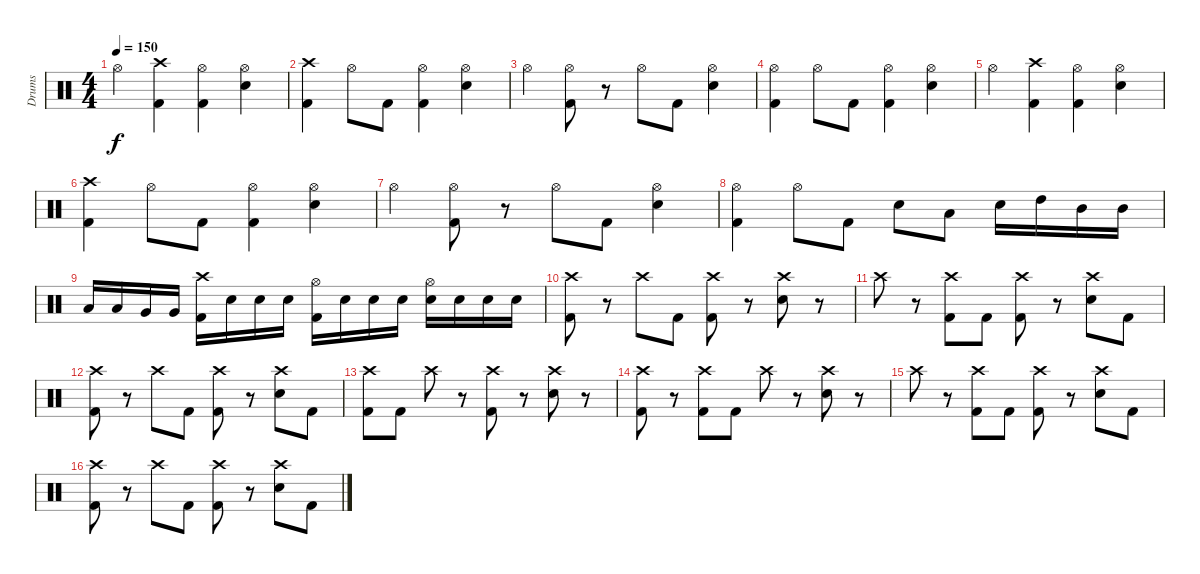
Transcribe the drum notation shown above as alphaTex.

\track ("Drums" "Drums") {instrument percussion}
\staff {score}
\articulation defaults
\ts (4 4)
\tempo 150
\clef neutral
\ks c "Hi-Hat (open)".4{dy f}
("Kick (hit) 2" "Crash high (hit)").4 ("Kick (hit) 2" "Hi-Hat (open)").4 ("Hi-Hat (open)" "Snare (hit) 2").4 |
("Kick (hit) 2" "Crash high (hit)").4 "Hi-Hat (open)".8 "Kick (hit) 2".8 ("Kick (hit) 2" "Hi-Hat (open)").4 ("Hi-Hat (open)" "Snare (hit) 2").4 |
"Hi-Hat (open)".4 ("Kick (hit) 2" "Hi-Hat (open)").8 r.8 "Hi-Hat (open)".8 "Kick (hit) 2".8 ("Hi-Hat (open)" "Snare (hit) 2").4 |
("Kick (hit) 2" "Hi-Hat (open)").4 "Hi-Hat (open)".8 "Kick (hit) 2".8 ("Kick (hit) 2" "Hi-Hat (open)").4 ("Hi-Hat (open)" "Snare (hit) 2").4 |
"Hi-Hat (open)".4 ("Kick (hit) 2" "Crash high (hit)").4 ("Kick (hit) 2" "Hi-Hat (open)").4 ("Hi-Hat (open)" "Snare (hit) 2").4 |
("Kick (hit) 2" "Crash high (hit)").4 "Hi-Hat (open)".8 "Kick (hit) 2".8 ("Kick (hit) 2" "Hi-Hat (open)").4 ("Hi-Hat (open)" "Snare (hit) 2").4 |
"Hi-Hat (open)".4 ("Kick (hit) 2" "Hi-Hat (open)").8 r.8 "Hi-Hat (open)".8 "Kick (hit) 2".8 ("Hi-Hat (open)" "Snare (hit) 2").4 |
("Kick (hit) 2" "Hi-Hat (open)").4 "Hi-Hat (open)".8 "Kick (hit) 2".8 "Snare (hit) 2".8 "Low Tom (hit)".8 "Snare (hit) 2".16 "High Tom (hit)".16 "Mid Tom (hit)".16 "Mid Tom (hit)".16 |
"Low Tom (hit)".16 "Low Tom (hit)".16 "Very Low Tom (hit)".16 "Very Low Tom (hit)".16 ("Kick (hit) 2" "Crash high (hit)").16 "Snare (hit) 2".16 "Snare (hit) 2".16 "Snare (hit) 2".16 ("Kick (hit) 2" "Hi-Hat (open)").16 "Snare (hit) 2".16 "Snare (hit) 2".16 "Snare (hit) 2".16 ("Hi-Hat (open)" "Snare (hit) 2").16 "Snare (hit) 2".16 "Snare (hit) 2".16 "Snare (hit) 2".16 |
("Kick (hit) 2" "Crash high (hit)").8 r.8 "Crash high (hit)".8 "Kick (hit) 2".8 ("Kick (hit) 2" "Crash high (hit)").8 r.8 ("Crash high (hit)" "Snare (hit) 2").8 r.8 |
"Crash high (hit)".8 r.8 ("Kick (hit) 2" "Crash high (hit)").8 "Kick (hit) 2".8 ("Kick (hit) 2" "Crash high (hit)").8 r.8 ("Crash high (hit)" "Snare (hit) 2").8 "Kick (hit) 2".8 |
("Kick (hit) 2" "Crash high (hit)").8 r.8 "Crash high (hit)".8 "Kick (hit) 2".8 ("Kick (hit) 2" "Crash high (hit)").8 r.8 ("Crash high (hit)" "Snare (hit) 2").8 "Kick (hit) 2".8 |
("Kick (hit) 2" "Crash high (hit)").8 "Kick (hit) 2".8 "Crash high (hit)".8 r.8 ("Kick (hit) 2" "Crash high (hit)").8 r.8 ("Crash high (hit)" "Snare (hit) 2").8 r.8 |
("Kick (hit) 2" "Crash high (hit)").8 r.8 ("Kick (hit) 2" "Crash high (hit)").8 "Kick (hit) 2".8 "Crash high (hit)".8 r.8 ("Crash high (hit)" "Snare (hit) 2").8 r.8 |
"Crash high (hit)".8 r.8 ("Kick (hit) 2" "Crash high (hit)").8 "Kick (hit) 2".8 ("Kick (hit) 2" "Crash high (hit)").8 r.8 ("Crash high (hit)" "Snare (hit) 2").8 "Kick (hit) 2".8 |
("Kick (hit) 2" "Crash high (hit)").8 r.8 "Crash high (hit)".8 "Kick (hit) 2".8 ("Kick (hit) 2" "Crash high (hit)").8 r.8 ("Crash high (hit)" "Snare (hit) 2").8 "Kick (hit) 2".8
